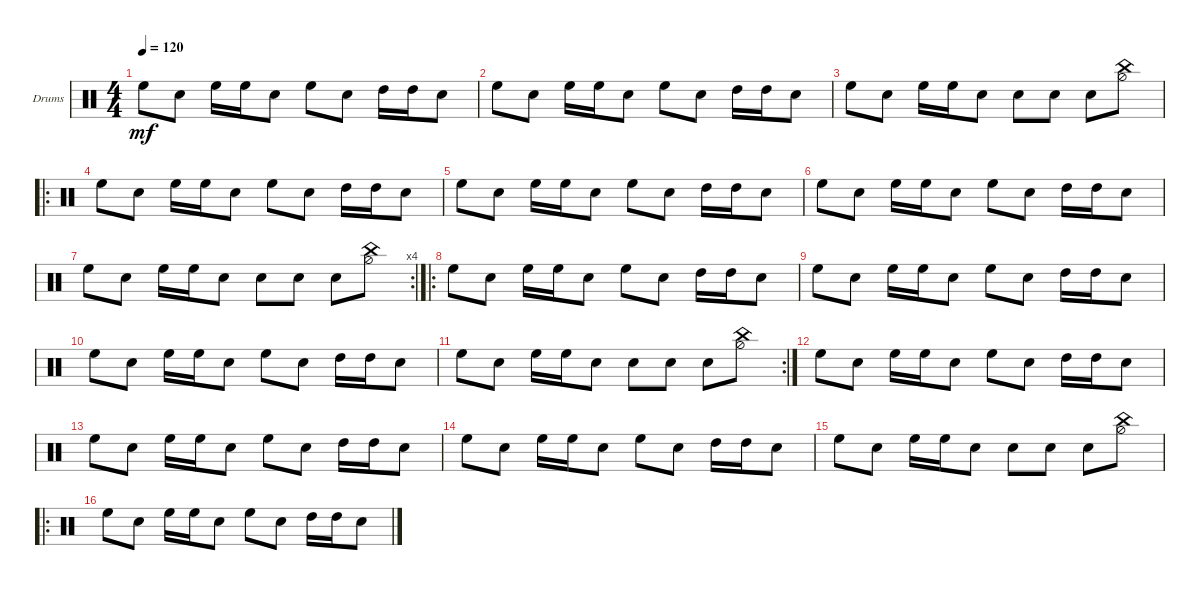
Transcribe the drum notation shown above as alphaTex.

\defaultSystemsLayout 4
\bracketExtendMode groupsimilarinstruments
\firstSystemTrackNameOrientation horizontal
\otherSystemsTrackNameOrientation horizontal
\track ("Drumkit" "Drums") {instrument percussion}
\staff {score}
\articulation defaults
\ts (4 4)
\tempo 120
\clef neutral
\ks c "High Floor Tom (hit)".8{dy mf} "Snare (hit) 2".8 "High Floor Tom (hit)".16 "High Floor Tom (hit)".16 "Snare (hit) 2".8 "High Floor Tom (hit)".8 "Snare (hit) 2".8 "High Tom (hit)".16 "High Tom (hit)".16 "Snare (hit) 2".8
|
"High Floor Tom (hit)".8 "Snare (hit) 2".8 "High Floor Tom (hit)".16 "High Floor Tom (hit)".16 "Snare (hit) 2".8 "High Floor Tom (hit)".8 "Snare (hit) 2".8 "High Tom (hit)".16 "High Tom (hit)".16 "Snare (hit) 2".8 |
"High Floor Tom (hit)".8 "Snare (hit) 2".8 "High Floor Tom (hit)".16 "High Floor Tom (hit)".16 "Snare (hit) 2".8 "Snare (hit) 2".8 "Snare (hit) 2".8 "Snare (hit) 2".8 ("Hi-Hat (half)" "China (hit)").8 |
\ro "High Floor Tom (hit)".8 "Snare (hit) 2".8 "High Floor Tom (hit)".16 "High Floor Tom (hit)".16 "Snare (hit) 2".8 "High Floor Tom (hit)".8 "Snare (hit) 2".8 "High Tom (hit)".16 "High Tom (hit)".16 "Snare (hit) 2".8
|
"High Floor Tom (hit)".8 "Snare (hit) 2".8 "High Floor Tom (hit)".16 "High Floor Tom (hit)".16 "Snare (hit) 2".8 "High Floor Tom (hit)".8 "Snare (hit) 2".8 "High Tom (hit)".16 "High Tom (hit)".16 "Snare (hit) 2".8 |
"High Floor Tom (hit)".8 "Snare (hit) 2".8 "High Floor Tom (hit)".16 "High Floor Tom (hit)".16 "Snare (hit) 2".8 "High Floor Tom (hit)".8 "Snare (hit) 2".8 "High Tom (hit)".16 "High Tom (hit)".16 "Snare (hit) 2".8 |
\rc 4 "High Floor Tom (hit)".8 "Snare (hit) 2".8 "High Floor Tom (hit)".16 "High Floor Tom (hit)".16 "Snare (hit) 2".8 "Snare (hit) 2".8 "Snare (hit) 2".8 "Snare (hit) 2".8
("Hi-Hat (half)" "China (hit)").8 |
\ro "High Floor Tom (hit)".8 "Snare (hit) 2".8 "High Floor Tom (hit)".16 "High Floor Tom (hit)".16 "Snare (hit) 2".8 "High Floor Tom (hit)".8 "Snare (hit) 2".8 "High Tom (hit)".16 "High Tom (hit)".16 "Snare (hit) 2".8
|
"High Floor Tom (hit)".8 "Snare (hit) 2".8 "High Floor Tom (hit)".16 "High Floor Tom (hit)".16 "Snare (hit) 2".8 "High Floor Tom (hit)".8 "Snare (hit) 2".8 "High Tom (hit)".16 "High Tom (hit)".16 "Snare (hit) 2".8 |
"High Floor Tom (hit)".8 "Snare (hit) 2".8 "High Floor Tom (hit)".16 "High Floor Tom (hit)".16 "Snare (hit) 2".8 "High Floor Tom (hit)".8 "Snare (hit) 2".8 "High Tom (hit)".16 "High Tom (hit)".16 "Snare (hit) 2".8 |
\rc 2 "High Floor Tom (hit)".8 "Snare (hit) 2".8 "High Floor Tom (hit)".16 "High Floor Tom (hit)".16 "Snare (hit) 2".8 "Snare (hit) 2".8 "Snare (hit) 2".8 "Snare (hit) 2".8
("Hi-Hat (half)" "China (hit)").8 |
"High Floor Tom (hit)".8 "Snare (hit) 2".8 "High Floor Tom (hit)".16 "High Floor Tom (hit)".16 "Snare (hit) 2".8 "High Floor Tom (hit)".8 "Snare (hit) 2".8 "High Tom (hit)".16 "High Tom (hit)".16 "Snare (hit) 2".8 |
"High Floor Tom (hit)".8 "Snare (hit) 2".8 "High Floor Tom (hit)".16 "High Floor Tom (hit)".16 "Snare (hit) 2".8 "High Floor Tom (hit)".8 "Snare (hit) 2".8 "High Tom (hit)".16 "High Tom (hit)".16 "Snare (hit) 2".8 |
"High Floor Tom (hit)".8 "Snare (hit) 2".8 "High Floor Tom (hit)".16 "High Floor Tom (hit)".16 "Snare (hit) 2".8 "High Floor Tom (hit)".8 "Snare (hit) 2".8 "High Tom (hit)".16 "High Tom (hit)".16 "Snare (hit) 2".8 |
"High Floor Tom (hit)".8 "Snare (hit) 2".8 "High Floor Tom (hit)".16 "High Floor Tom (hit)".16 "Snare (hit) 2".8 "Snare (hit) 2".8 "Snare (hit) 2".8 "Snare (hit) 2".8 ("Hi-Hat (half)" "China (hit)").8 |
\ro "High Floor Tom (hit)".8 "Snare (hit) 2".8 "High Floor Tom (hit)".16 "High Floor Tom (hit)".16 "Snare (hit) 2".8 "High Floor Tom (hit)".8 "Snare (hit) 2".8 "High Tom (hit)".16 "High Tom (hit)".16 "Snare (hit) 2".8
